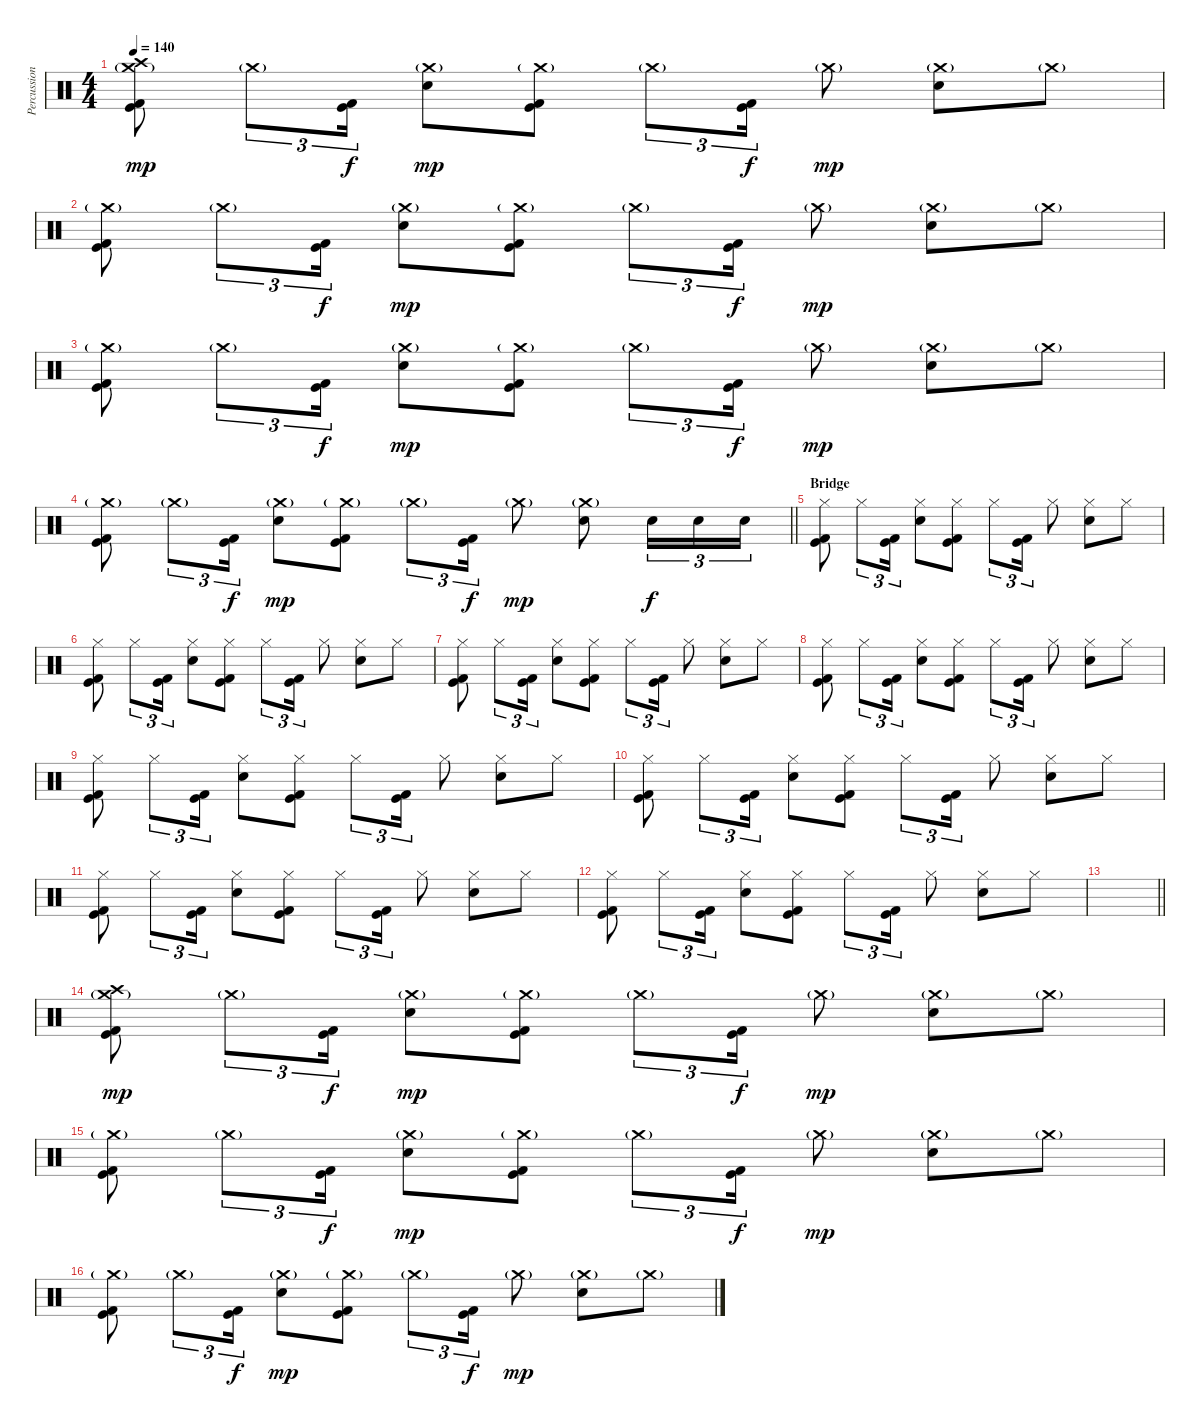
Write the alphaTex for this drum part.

\track ("Percussion" "Percussion") {instrument percussion}
\staff {score}
\articulation defaults
\ts (4 4)
\tempo 140
\clef neutral
\ks c
("Crash medium (hit)"{g} "Crash high (hit)" "Kick (hit)" "Kick (hit) 2").8{dy mp} "Crash medium (hit)"{g}.8{tu (3 2)} ("Kick (hit)" "Kick (hit) 2").16{tu (3 2) dy f} ("Crash medium (hit)"{g} "Electric Snare (hit)").8{dy mp} ("Crash medium (hit)"{g} "Kick (hit)" "Kick (hit) 2").8 "Crash medium (hit)"{g}.8{tu (3 2)} ("Kick (hit)" "Kick (hit) 2").16{tu (3 2) dy f} "Crash medium (hit)"{g}.8{dy mp} ("Crash medium (hit)"{g} "Electric Snare (hit)").8 "Crash medium (hit)"{g}.8 |
("Crash medium (hit)"{g} "Kick (hit)" "Kick (hit) 2").8 "Crash medium (hit)"{g}.8{tu (3 2)} ("Kick (hit)" "Kick (hit) 2").16{tu (3 2) dy f} ("Crash medium (hit)"{g} "Electric Snare (hit)").8{dy mp} ("Crash medium (hit)"{g} "Kick (hit)" "Kick (hit) 2").8 "Crash medium (hit)"{g}.8{tu (3 2)} ("Kick (hit)" "Kick (hit) 2").16{tu (3 2) dy f} "Crash medium (hit)"{g}.8{dy mp} ("Crash medium (hit)"{g} "Electric Snare (hit)").8 "Crash medium (hit)"{g}.8 |
("Crash medium (hit)"{g} "Kick (hit)" "Kick (hit) 2").8 "Crash medium (hit)"{g}.8{tu (3 2)} ("Kick (hit)" "Kick (hit) 2").16{tu (3 2) dy f} ("Crash medium (hit)"{g} "Electric Snare (hit)").8{dy mp} ("Crash medium (hit)"{g} "Kick (hit)" "Kick (hit) 2").8 "Crash medium (hit)"{g}.8{tu (3 2)} ("Kick (hit)" "Kick (hit) 2").16{tu (3 2) dy f} "Crash medium (hit)"{g}.8{dy mp} ("Crash medium (hit)"{g} "Electric Snare (hit)").8 "Crash medium (hit)"{g}.8 |
\barLineRight lightlight
("Crash medium (hit)"{g} "Kick (hit)" "Kick (hit) 2").8 "Crash medium (hit)"{g}.8{tu (3 2)} ("Kick (hit)" "Kick (hit) 2").16{tu (3 2) dy f} ("Crash medium (hit)"{g} "Electric Snare (hit)").8{dy mp} ("Crash medium (hit)"{g} "Kick (hit)" "Kick (hit) 2").8 "Crash medium (hit)"{g}.8{tu (3 2)} ("Kick (hit)" "Kick (hit) 2").16{tu (3 2) dy f} "Crash medium (hit)"{g}.8{dy mp} ("Crash medium (hit)"{g} "Electric Snare (hit)").8 "Electric Snare (hit)".16{tu (3 2) dy f} "Electric Snare (hit)".16{tu (3 2)} "Electric Snare (hit)".16{tu (3 2)} |
\section ("" "Bridge")
("Hi-Hat (closed)" "Kick (hit)" "Kick (hit) 2").8 "Hi-Hat (closed)".8{tu (3 2)} ("Kick (hit)" "Kick (hit) 2").16{tu (3 2)} ("Hi-Hat (closed)" "Electric Snare (hit)").8 ("Hi-Hat (closed)" "Kick (hit)" "Kick (hit) 2").8 "Hi-Hat (closed)".8{tu (3 2)} ("Kick (hit)" "Kick (hit) 2").16{tu (3 2)} "Hi-Hat (closed)".8 ("Hi-Hat (closed)" "Electric Snare (hit)").8 "Hi-Hat (closed)".8 |
("Hi-Hat (closed)" "Kick (hit)" "Kick (hit) 2").8 "Hi-Hat (closed)".8{tu (3 2)} ("Kick (hit)" "Kick (hit) 2").16{tu (3 2)} ("Hi-Hat (closed)" "Electric Snare (hit)").8 ("Hi-Hat (closed)" "Kick (hit)" "Kick (hit) 2").8 "Hi-Hat (closed)".8{tu (3 2)} ("Kick (hit)" "Kick (hit) 2").16{tu (3 2)} "Hi-Hat (closed)".8 ("Hi-Hat (closed)" "Electric Snare (hit)").8 "Hi-Hat (closed)".8 |
("Hi-Hat (closed)" "Kick (hit)" "Kick (hit) 2").8 "Hi-Hat (closed)".8{tu (3 2)} ("Kick (hit)" "Kick (hit) 2").16{tu (3 2)} ("Hi-Hat (closed)" "Electric Snare (hit)").8 ("Hi-Hat (closed)" "Kick (hit)" "Kick (hit) 2").8 "Hi-Hat (closed)".8{tu (3 2)} ("Kick (hit)" "Kick (hit) 2").16{tu (3 2)} "Hi-Hat (closed)".8 ("Hi-Hat (closed)" "Electric Snare (hit)").8 "Hi-Hat (closed)".8 |
("Hi-Hat (closed)" "Kick (hit)" "Kick (hit) 2").8 "Hi-Hat (closed)".8{tu (3 2)} ("Kick (hit)" "Kick (hit) 2").16{tu (3 2)} ("Hi-Hat (closed)" "Electric Snare (hit)").8 ("Hi-Hat (closed)" "Kick (hit)" "Kick (hit) 2").8 "Hi-Hat (closed)".8{tu (3 2)} ("Kick (hit)" "Kick (hit) 2").16{tu (3 2)} "Hi-Hat (closed)".8 ("Hi-Hat (closed)" "Electric Snare (hit)").8 "Hi-Hat (closed)".8 |
("Hi-Hat (closed)" "Kick (hit)" "Kick (hit) 2").8 "Hi-Hat (closed)".8{tu (3 2)} ("Kick (hit)" "Kick (hit) 2").16{tu (3 2)} ("Hi-Hat (closed)" "Electric Snare (hit)").8 ("Hi-Hat (closed)" "Kick (hit)" "Kick (hit) 2").8 "Hi-Hat (closed)".8{tu (3 2)} ("Kick (hit)" "Kick (hit) 2").16{tu (3 2)} "Hi-Hat (closed)".8 ("Hi-Hat (closed)" "Electric Snare (hit)").8 "Hi-Hat (closed)".8 |
("Hi-Hat (closed)" "Kick (hit)" "Kick (hit) 2").8 "Hi-Hat (closed)".8{tu (3 2)} ("Kick (hit)" "Kick (hit) 2").16{tu (3 2)} ("Hi-Hat (closed)" "Electric Snare (hit)").8 ("Hi-Hat (closed)" "Kick (hit)" "Kick (hit) 2").8 "Hi-Hat (closed)".8{tu (3 2)} ("Kick (hit)" "Kick (hit) 2").16{tu (3 2)} "Hi-Hat (closed)".8 ("Hi-Hat (closed)" "Electric Snare (hit)").8 "Hi-Hat (closed)".8 |
("Hi-Hat (closed)" "Kick (hit)" "Kick (hit) 2").8 "Hi-Hat (closed)".8{tu (3 2)} ("Kick (hit)" "Kick (hit) 2").16{tu (3 2)} ("Hi-Hat (closed)" "Electric Snare (hit)").8 ("Hi-Hat (closed)" "Kick (hit)" "Kick (hit) 2").8 "Hi-Hat (closed)".8{tu (3 2)} ("Kick (hit)" "Kick (hit) 2").16{tu (3 2)} "Hi-Hat (closed)".8 ("Hi-Hat (closed)" "Electric Snare (hit)").8 "Hi-Hat (closed)".8 |
("Hi-Hat (closed)" "Kick (hit)" "Kick (hit) 2").8 "Hi-Hat (closed)".8{tu (3 2)} ("Kick (hit)" "Kick (hit) 2").16{tu (3 2)} ("Hi-Hat (closed)" "Electric Snare (hit)").8 ("Hi-Hat (closed)" "Kick (hit)" "Kick (hit) 2").8 "Hi-Hat (closed)".8{tu (3 2)} ("Kick (hit)" "Kick (hit) 2").16{tu (3 2)} "Hi-Hat (closed)".8 ("Hi-Hat (closed)" "Electric Snare (hit)").8 "Hi-Hat (closed)".8 |
\barLineRight lightlight
|
\section ("" "")
("Crash medium (hit)"{g} "Crash high (hit)" "Kick (hit)" "Kick (hit) 2").8{dy mp} "Crash medium (hit)"{g}.8{tu (3 2)} ("Kick (hit)" "Kick (hit) 2").16{tu (3 2) dy f} ("Crash medium (hit)"{g} "Electric Snare (hit)").8{dy mp} ("Crash medium (hit)"{g} "Kick (hit)" "Kick (hit) 2").8 "Crash medium (hit)"{g}.8{tu (3 2)} ("Kick (hit)" "Kick (hit) 2").16{tu (3 2) dy f} "Crash medium (hit)"{g}.8{dy mp} ("Crash medium (hit)"{g} "Electric Snare (hit)").8 "Crash medium (hit)"{g}.8 |
("Crash medium (hit)"{g} "Kick (hit)" "Kick (hit) 2").8 "Crash medium (hit)"{g}.8{tu (3 2)} ("Kick (hit)" "Kick (hit) 2").16{tu (3 2) dy f} ("Crash medium (hit)"{g} "Electric Snare (hit)").8{dy mp} ("Crash medium (hit)"{g} "Kick (hit)" "Kick (hit) 2").8 "Crash medium (hit)"{g}.8{tu (3 2)} ("Kick (hit)" "Kick (hit) 2").16{tu (3 2) dy f} "Crash medium (hit)"{g}.8{dy mp} ("Crash medium (hit)"{g} "Electric Snare (hit)").8 "Crash medium (hit)"{g}.8 |
("Crash medium (hit)"{g} "Kick (hit)" "Kick (hit) 2").8 "Crash medium (hit)"{g}.8{tu (3 2)} ("Kick (hit)" "Kick (hit) 2").16{tu (3 2) dy f} ("Crash medium (hit)"{g} "Electric Snare (hit)").8{dy mp} ("Crash medium (hit)"{g} "Kick (hit)" "Kick (hit) 2").8 "Crash medium (hit)"{g}.8{tu (3 2)} ("Kick (hit)" "Kick (hit) 2").16{tu (3 2) dy f} "Crash medium (hit)"{g}.8{dy mp} ("Crash medium (hit)"{g} "Electric Snare (hit)").8 "Crash medium (hit)"{g}.8
